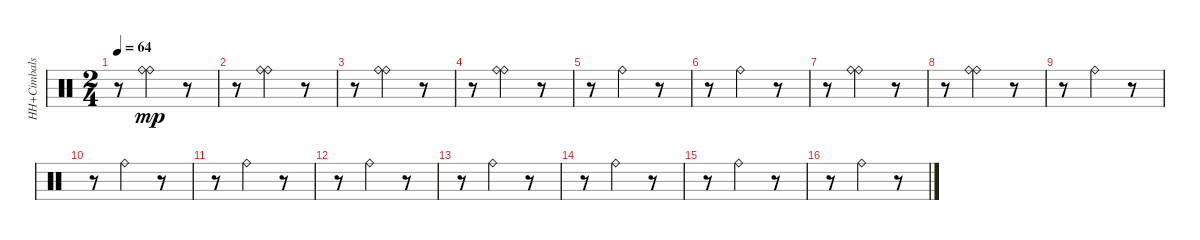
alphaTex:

\track ("HH+Cimbals" "HH+Cimbals") {instrument percussion}
\staff {score}
\articulation defaults
\ts (2 4)
\tempo 64
\clef neutral
\ks c
r.8{dy mp} ("Ride (bell)" "Ride (bell)").4 r.8 |
r.8 ("Ride (bell)" "Ride (bell)").4 r.8 |
r.8 ("Ride (bell)" "Ride (bell)").4 r.8 |
r.8 ("Ride (bell)" "Ride (bell)").4 r.8 |
r.8 "Ride (bell)".4 r.8 |
r.8 "Ride (bell)".4 r.8 |
r.8 ("Ride (bell)" "Ride (bell)").4 r.8 |
r.8 ("Ride (bell)" "Ride (bell)").4 r.8 |
r.8 "Ride (bell)".4 r.8 |
r.8 "Ride (bell)".4 r.8 |
r.8 "Ride (bell)".4 r.8 |
r.8 "Ride (bell)".4 r.8 |
r.8 "Ride (bell)".4 r.8 |
r.8 "Ride (bell)".4 r.8 |
r.8 "Ride (bell)".4 r.8 |
r.8 "Ride (bell)".4 r.8
